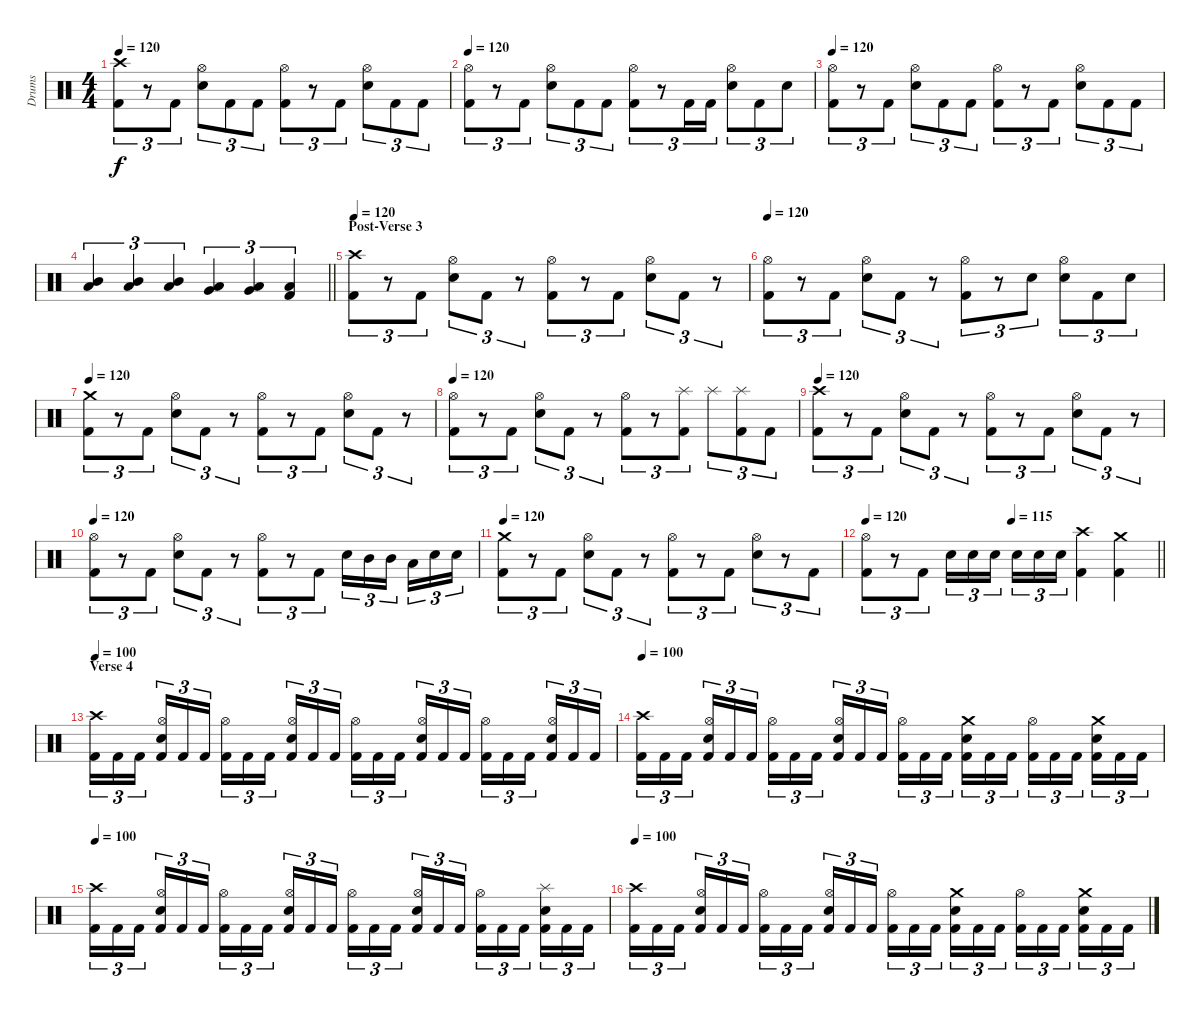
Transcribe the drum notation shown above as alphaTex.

\track ("Drums" "Drums") {instrument percussion}
\staff {score}
\articulation defaults
\ts (4 4)
\tempo 120
\clef neutral
\ks c
("Crash high (hit)" "Kick (hit) 2").8{tu (3 2) dy f} r.8{tu (3 2)} "Kick (hit) 2".8{tu (3 2)} ("Hi-Hat (open)" "Electric Snare (hit)").8{tu (3 2)} "Kick (hit) 2".8{tu (3 2)} "Kick (hit) 2".8{tu (3 2)} ("Hi-Hat (open)" "Kick (hit) 2").8{tu (3 2)} r.8{tu (3 2)} "Kick (hit) 2".8{tu (3 2)} ("Hi-Hat (open)" "Electric Snare (hit)").8{tu (3 2)} "Kick (hit) 2".8{tu (3 2)} "Kick (hit) 2".8{tu (3 2)} |
\tempo 120
("Hi-Hat (open)" "Kick (hit) 2").8{tu (3 2)} r.8{tu (3 2)} "Kick (hit) 2".8{tu (3 2)} ("Hi-Hat (open)" "Electric Snare (hit)").8{tu (3 2)} "Kick (hit) 2".8{tu (3 2)} "Kick (hit) 2".8{tu (3 2)} ("Hi-Hat (open)" "Kick (hit) 2").8{tu (3 2)} r.8{tu (3 2)} "Kick (hit) 2".16{tu (3 2)} "Kick (hit) 2".16{tu (3 2)} ("Hi-Hat (open)" "Electric Snare (hit)").8{tu (3 2)} "Kick (hit) 2".8{tu (3 2)} "Electric Snare (hit)".8{tu (3 2)} |
\tempo 120
("Hi-Hat (open)" "Kick (hit) 2").8{tu (3 2)} r.8{tu (3 2)} "Kick (hit) 2".8{tu (3 2)} ("Hi-Hat (open)" "Electric Snare (hit)").8{tu (3 2)} "Kick (hit) 2".8{tu (3 2)} "Kick (hit) 2".8{tu (3 2)} ("Hi-Hat (open)" "Kick (hit) 2").8{tu (3 2)} r.8{tu (3 2)} "Kick (hit) 2".8{tu (3 2)} ("Hi-Hat (open)" "Electric Snare (hit)").8{tu (3 2)} "Kick (hit) 2".8{tu (3 2)} "Kick (hit) 2".8{tu (3 2)} |
\barLineRight lightlight
("Mid Tom (hit)" "Low Tom (hit)").4{tu (3 2)} ("Mid Tom (hit)" "Low Tom (hit)").4{tu (3 2)} ("Mid Tom (hit)" "Low Tom (hit)").4{tu (3 2)} ("Low Tom (hit)" "Very Low Tom (hit)").4{tu (3 2)} ("Low Tom (hit)" "Very Low Tom (hit)").4{tu (3 2)} ("Low Floor Tom (hit)" "Kick (hit) 2").4{tu (3 2)} |
\section ("" "Post-Verse 3")
\tempo 120
("Crash high (hit)" "Kick (hit) 2").8{tu (3 2)} r.8{tu (3 2)} "Kick (hit) 2".8{tu (3 2)} ("Hi-Hat (open)" "Electric Snare (hit)").8{tu (3 2)} "Kick (hit) 2".8{tu (3 2)} r.8{tu (3 2)} ("Hi-Hat (open)" "Kick (hit) 2").8{tu (3 2)} r.8{tu (3 2)} "Kick (hit) 2".8{tu (3 2)} ("Hi-Hat (open)" "Electric Snare (hit)").8{tu (3 2)} "Kick (hit) 2".8{tu (3 2)} r.8{tu (3 2)} |
\tempo 120
("Hi-Hat (open)" "Kick (hit) 2").8{tu (3 2)} r.8{tu (3 2)} "Kick (hit) 2".8{tu (3 2)} ("Hi-Hat (open)" "Electric Snare (hit)").8{tu (3 2)} "Kick (hit) 2".8{tu (3 2)} r.8{tu (3 2)} ("Hi-Hat (open)" "Kick (hit) 2").8{tu (3 2)} r.8{tu (3 2)} "Electric Snare (hit)".8{tu (3 2)} ("Hi-Hat (open)" "Electric Snare (hit)").8{tu (3 2)} "Kick (hit) 2".8{tu (3 2)} "Electric Snare (hit)".8{tu (3 2)} |
\tempo 120
("Crash medium (hit)" "Kick (hit) 2").8{tu (3 2)} r.8{tu (3 2)} "Kick (hit) 2".8{tu (3 2)} ("Hi-Hat (open)" "Electric Snare (hit)").8{tu (3 2)} "Kick (hit) 2".8{tu (3 2)} r.8{tu (3 2)} ("Hi-Hat (open)" "Kick (hit) 2").8{tu (3 2)} r.8{tu (3 2)} "Kick (hit) 2".8{tu (3 2)} ("Hi-Hat (open)" "Electric Snare (hit)").8{tu (3 2)} "Kick (hit) 2".8{tu (3 2)} r.8{tu (3 2)} |
\tempo 120
("Hi-Hat (open)" "Kick (hit) 2").8{tu (3 2)} r.8{tu (3 2)} "Kick (hit) 2".8{tu (3 2)} ("Hi-Hat (open)" "Electric Snare (hit)").8{tu (3 2)} "Kick (hit) 2".8{tu (3 2)} r.8{tu (3 2)} ("Hi-Hat (open)" "Kick (hit) 2").8{tu (3 2)} r.8{tu (3 2)} ("Splash (hit)" "Kick (hit) 2").8{tu (3 2)} "Splash (hit)".8{tu (3 2)} ("Splash (hit)" "Kick (hit) 2").8{tu (3 2)} "Kick (hit) 2".8{tu (3 2)} |
\tempo 120
("Crash high (hit)" "Kick (hit) 2").8{tu (3 2)} r.8{tu (3 2)} "Kick (hit) 2".8{tu (3 2)} ("Hi-Hat (open)" "Electric Snare (hit)").8{tu (3 2)} "Kick (hit) 2".8{tu (3 2)} r.8{tu (3 2)} ("Hi-Hat (open)" "Kick (hit) 2").8{tu (3 2)} r.8{tu (3 2)} "Kick (hit) 2".8{tu (3 2)} ("Hi-Hat (open)" "Electric Snare (hit)").8{tu (3 2)} "Kick (hit) 2".8{tu (3 2)} r.8{tu (3 2)} |
\tempo 120
("Hi-Hat (open)" "Kick (hit) 2").8{tu (3 2)} r.8{tu (3 2)} "Kick (hit) 2".8{tu (3 2)} ("Hi-Hat (open)" "Electric Snare (hit)").8{tu (3 2)} "Kick (hit) 2".8{tu (3 2)} r.8{tu (3 2)} ("Hi-Hat (open)" "Kick (hit) 2").8{tu (3 2)} r.8{tu (3 2)} "Kick (hit) 2".8{tu (3 2)} "Electric Snare (hit)".16{tu (3 2)} "Mid Tom (hit)".16{tu (3 2)} "Mid Tom (hit)".16{tu (3 2) beam splitsecondary} "Low Tom (hit)".16{tu (3 2)} "Electric Snare (hit)".16{tu (3 2)} "Electric Snare (hit)".16{tu (3 2)} |
\tempo 120
("Crash medium (hit)" "Kick (hit) 2").8{tu (3 2)} r.8{tu (3 2)} "Kick (hit) 2".8{tu (3 2)} ("Hi-Hat (open)" "Electric Snare (hit)").8{tu (3 2)} "Kick (hit) 2".8{tu (3 2)} r.8{tu (3 2)} ("Hi-Hat (open)" "Kick (hit) 2").8{tu (3 2)} r.8{tu (3 2)} "Kick (hit) 2".8{tu (3 2)} ("Hi-Hat (open)" "Electric Snare (hit)").8{tu (3 2)} r.8{tu (3 2)} "Kick (hit) 2".8{tu (3 2)} |
\tempo 120
\tempo (115 0.5)
\barLineRight lightlight
("Hi-Hat (open)" "Kick (hit) 2").8{tu (3 2)} r.8{tu (3 2)} "Kick (hit) 2".8{tu (3 2)} "Electric Snare (hit)".16{tu (3 2)} "Electric Snare (hit)".16{tu (3 2)} "Electric Snare (hit)".16{tu (3 2) beam splitsecondary} "Electric Snare (hit)".16{tu (3 2)} "Electric Snare (hit)".16{tu (3 2)} "Electric Snare (hit)".16{tu (3 2)} ("Crash high (hit)" "Kick (hit) 2").4 ("Crash medium (hit)" "Kick (hit) 2").4 |
\section ("" "Verse 4")
\tempo 100
("Crash high (hit)" "Kick (hit) 2").16{tu (3 2)} "Kick (hit) 2".16{tu (3 2)} "Kick (hit) 2".16{tu (3 2) beam splitsecondary} ("Hi-Hat (open)" "Electric Snare (hit)" "Kick (hit) 2").16{tu (3 2)} "Kick (hit) 2".16{tu (3 2)} "Kick (hit) 2".16{tu (3 2)} ("Hi-Hat (open)" "Kick (hit) 2").16{tu (3 2)} "Kick (hit) 2".16{tu (3 2)} "Kick (hit) 2".16{tu (3 2) beam splitsecondary} ("Hi-Hat (open)" "Electric Snare (hit)" "Kick (hit) 2").16{tu (3 2)} "Kick (hit) 2".16{tu (3 2)} "Kick (hit) 2".16{tu (3 2)} ("Hi-Hat (open)" "Kick (hit) 2").16{tu (3 2)} "Kick (hit) 2".16{tu (3 2)} "Kick (hit) 2".16{tu (3 2) beam splitsecondary} ("Hi-Hat (open)" "Electric Snare (hit)" "Kick (hit) 2").16{tu (3 2)} "Kick (hit) 2".16{tu (3 2)} "Kick (hit) 2".16{tu (3 2)} ("Hi-Hat (open)" "Kick (hit) 2").16{tu (3 2)} "Kick (hit) 2".16{tu (3 2)} "Kick (hit) 2".16{tu (3 2) beam splitsecondary} ("Hi-Hat (open)" "Electric Snare (hit)" "Kick (hit) 2").16{tu (3 2)} "Kick (hit) 2".16{tu (3 2)} "Kick (hit) 2".16{tu (3 2)} |
\tempo 100
("Crash high (hit)" "Kick (hit) 2").16{tu (3 2)} "Kick (hit) 2".16{tu (3 2)} "Kick (hit) 2".16{tu (3 2) beam splitsecondary} ("Hi-Hat (open)" "Electric Snare (hit)" "Kick (hit) 2").16{tu (3 2)} "Kick (hit) 2".16{tu (3 2)} "Kick (hit) 2".16{tu (3 2)} ("Hi-Hat (open)" "Kick (hit) 2").16{tu (3 2)} "Kick (hit) 2".16{tu (3 2)} "Kick (hit) 2".16{tu (3 2) beam splitsecondary} ("Hi-Hat (open)" "Electric Snare (hit)" "Kick (hit) 2").16{tu (3 2)} "Kick (hit) 2".16{tu (3 2)} "Kick (hit) 2".16{tu (3 2)} ("Hi-Hat (open)" "Kick (hit) 2").16{tu (3 2)} "Kick (hit) 2".16{tu (3 2)} "Kick (hit) 2".16{tu (3 2) beam splitsecondary} ("Crash medium (hit)" "Electric Snare (hit)" "Kick (hit) 2").16{tu (3 2)} "Kick (hit) 2".16{tu (3 2)} "Kick (hit) 2".16{tu (3 2)} ("Hi-Hat (open)" "Kick (hit) 2").16{tu (3 2)} "Kick (hit) 2".16{tu (3 2)} "Kick (hit) 2".16{tu (3 2) beam splitsecondary} ("Crash medium (hit)" "Electric Snare (hit)" "Kick (hit) 2").16{tu (3 2)} "Kick (hit) 2".16{tu (3 2)} "Kick (hit) 2".16{tu (3 2)} |
\tempo 100
("Crash high (hit)" "Kick (hit) 2").16{tu (3 2)} "Kick (hit) 2".16{tu (3 2)} "Kick (hit) 2".16{tu (3 2) beam splitsecondary} ("Hi-Hat (open)" "Electric Snare (hit)" "Kick (hit) 2").16{tu (3 2)} "Kick (hit) 2".16{tu (3 2)} "Kick (hit) 2".16{tu (3 2)} ("Hi-Hat (open)" "Kick (hit) 2").16{tu (3 2)} "Kick (hit) 2".16{tu (3 2)} "Kick (hit) 2".16{tu (3 2) beam splitsecondary} ("Hi-Hat (open)" "Electric Snare (hit)" "Kick (hit) 2").16{tu (3 2)} "Kick (hit) 2".16{tu (3 2)} "Kick (hit) 2".16{tu (3 2)} ("Hi-Hat (open)" "Kick (hit) 2").16{tu (3 2)} "Kick (hit) 2".16{tu (3 2)} "Kick (hit) 2".16{tu (3 2) beam splitsecondary} ("Hi-Hat (open)" "Electric Snare (hit)" "Kick (hit) 2").16{tu (3 2)} "Kick (hit) 2".16{tu (3 2)} "Kick (hit) 2".16{tu (3 2)} ("Hi-Hat (open)" "Kick (hit) 2").16{tu (3 2)} "Kick (hit) 2".16{tu (3 2)} "Kick (hit) 2".16{tu (3 2) beam splitsecondary} ("Splash (hit)" "Electric Snare (hit)" "Kick (hit) 2").16{tu (3 2)} "Kick (hit) 2".16{tu (3 2)} "Kick (hit) 2".16{tu (3 2)} |
\tempo 100
("Crash high (hit)" "Kick (hit) 2").16{tu (3 2)} "Kick (hit) 2".16{tu (3 2)} "Kick (hit) 2".16{tu (3 2) beam splitsecondary} ("Hi-Hat (open)" "Electric Snare (hit)" "Kick (hit) 2").16{tu (3 2)} "Kick (hit) 2".16{tu (3 2)} "Kick (hit) 2".16{tu (3 2)} ("Hi-Hat (open)" "Kick (hit) 2").16{tu (3 2)} "Kick (hit) 2".16{tu (3 2)} "Kick (hit) 2".16{tu (3 2) beam splitsecondary} ("Hi-Hat (open)" "Electric Snare (hit)" "Kick (hit) 2").16{tu (3 2)} "Kick (hit) 2".16{tu (3 2)} "Kick (hit) 2".16{tu (3 2)} ("Hi-Hat (open)" "Kick (hit) 2").16{tu (3 2)} "Kick (hit) 2".16{tu (3 2)} "Kick (hit) 2".16{tu (3 2) beam splitsecondary} ("Crash medium (hit)" "Electric Snare (hit)" "Kick (hit) 2").16{tu (3 2)} "Kick (hit) 2".16{tu (3 2)} "Kick (hit) 2".16{tu (3 2)} ("Hi-Hat (open)" "Kick (hit) 2").16{tu (3 2)} "Kick (hit) 2".16{tu (3 2)} "Kick (hit) 2".16{tu (3 2) beam splitsecondary} ("Crash medium (hit)" "Electric Snare (hit)" "Kick (hit) 2").16{tu (3 2)} "Kick (hit) 2".16{tu (3 2)} "Kick (hit) 2".16{tu (3 2)}
